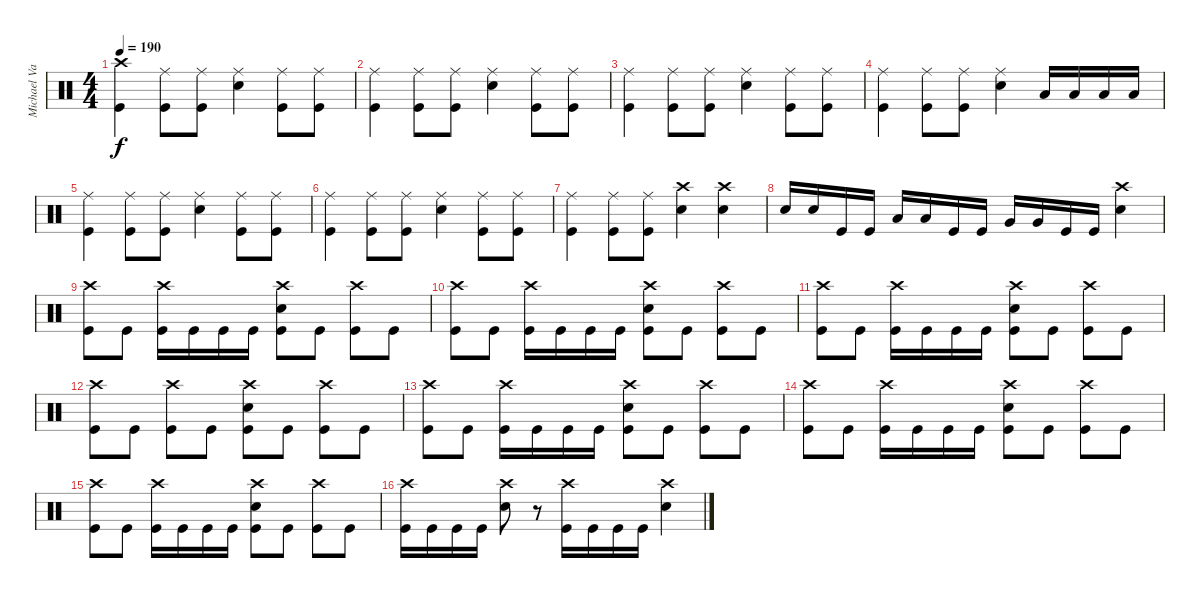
\track ("Michael VanDyne" "Michael Va") {instrument percussion}
\staff {score}
\articulation defaults
\ts (4 4)
\tempo 190
\clef neutral
\ks c
("Crash high (hit)" "Kick (hit)").4{dy f} ("Ride (middle)" "Kick (hit)").8 ("Ride (middle)" "Kick (hit)").8 ("Ride (middle)" "Electric Snare (hit)").4 ("Ride (middle)" "Kick (hit)").8 ("Ride (middle)" "Kick (hit)").8 |
("Ride (middle)" "Kick (hit)").4 ("Ride (middle)" "Kick (hit)").8 ("Ride (middle)" "Kick (hit)").8 ("Ride (middle)" "Electric Snare (hit)").4 ("Ride (middle)" "Kick (hit)").8 ("Ride (middle)" "Kick (hit)").8 |
("Ride (middle)" "Kick (hit)").4 ("Ride (middle)" "Kick (hit)").8 ("Ride (middle)" "Kick (hit)").8 ("Ride (middle)" "Electric Snare (hit)").4 ("Ride (middle)" "Kick (hit)").8 ("Ride (middle)" "Kick (hit)").8 |
("Ride (middle)" "Kick (hit)").4 ("Ride (middle)" "Kick (hit)").8 ("Ride (middle)" "Kick (hit)").8 ("Ride (middle)" "Electric Snare (hit)").4 "Low Tom (hit)".16 "Low Tom (hit)".16 "Low Tom (hit)".16 "Low Tom (hit)".16 |
("Ride (middle)" "Kick (hit)").4 ("Ride (middle)" "Kick (hit)").8 ("Ride (middle)" "Kick (hit)").8 ("Ride (middle)" "Electric Snare (hit)").4 ("Ride (middle)" "Kick (hit)").8 ("Ride (middle)" "Kick (hit)").8 |
("Ride (middle)" "Kick (hit)").4 ("Ride (middle)" "Kick (hit)").8 ("Ride (middle)" "Kick (hit)").8 ("Ride (middle)" "Electric Snare (hit)").4 ("Ride (middle)" "Kick (hit)").8 ("Ride (middle)" "Kick (hit)").8 |
("Ride (middle)" "Kick (hit)").4 ("Ride (middle)" "Kick (hit)").8 ("Ride (middle)" "Kick (hit)").8 ("Crash high (hit)" "Electric Snare (hit)").4 ("Crash high (hit)" "Electric Snare (hit)").4 |
"Electric Snare (hit)".16 "Electric Snare (hit)".16 "Kick (hit)".16 "Kick (hit)".16 "Low Tom (hit)".16 "Low Tom (hit)".16 "Kick (hit)".16 "Kick (hit)".16 "Very Low Tom (hit)".16 "Very Low Tom (hit)".16 "Kick (hit)".16 "Kick (hit)".16 ("Crash high (hit)" "Electric Snare (hit)").4 |
("Crash high (hit)" "Kick (hit)").8 "Kick (hit)".8 ("Crash high (hit)" "Kick (hit)").16 "Kick (hit)".16 "Kick (hit)".16 "Kick (hit)".16 ("Crash high (hit)" "Electric Snare (hit)" "Kick (hit)").8 "Kick (hit)".8 ("Crash high (hit)" "Kick (hit)").8 "Kick (hit)".8 |
("Crash high (hit)" "Kick (hit)").8 "Kick (hit)".8 ("Crash high (hit)" "Kick (hit)").16 "Kick (hit)".16 "Kick (hit)".16 "Kick (hit)".16 ("Crash high (hit)" "Electric Snare (hit)" "Kick (hit)").8 "Kick (hit)".8 ("Crash high (hit)" "Kick (hit)").8 "Kick (hit)".8 |
("Crash high (hit)" "Kick (hit)").8 "Kick (hit)".8 ("Crash high (hit)" "Kick (hit)").16 "Kick (hit)".16 "Kick (hit)".16 "Kick (hit)".16 ("Crash high (hit)" "Electric Snare (hit)" "Kick (hit)").8 "Kick (hit)".8 ("Crash high (hit)" "Kick (hit)").8 "Kick (hit)".8 |
("Crash high (hit)" "Kick (hit)").8 "Kick (hit)".8 ("Crash high (hit)" "Kick (hit)").8 "Kick (hit)".8 ("Crash high (hit)" "Electric Snare (hit)" "Kick (hit)").8 "Kick (hit)".8 ("Crash high (hit)" "Kick (hit)").8 "Kick (hit)".8 |
("Crash high (hit)" "Kick (hit)").8 "Kick (hit)".8 ("Crash high (hit)" "Kick (hit)").16 "Kick (hit)".16 "Kick (hit)".16 "Kick (hit)".16 ("Crash high (hit)" "Electric Snare (hit)" "Kick (hit)").8 "Kick (hit)".8 ("Crash high (hit)" "Kick (hit)").8 "Kick (hit)".8 |
("Crash high (hit)" "Kick (hit)").8 "Kick (hit)".8 ("Crash high (hit)" "Kick (hit)").16 "Kick (hit)".16 "Kick (hit)".16 "Kick (hit)".16 ("Crash high (hit)" "Electric Snare (hit)" "Kick (hit)").8 "Kick (hit)".8 ("Crash high (hit)" "Kick (hit)").8 "Kick (hit)".8 |
("Crash high (hit)" "Kick (hit)").8 "Kick (hit)".8 ("Crash high (hit)" "Kick (hit)").16 "Kick (hit)".16 "Kick (hit)".16 "Kick (hit)".16 ("Crash high (hit)" "Electric Snare (hit)" "Kick (hit)").8 "Kick (hit)".8 ("Crash high (hit)" "Kick (hit)").8 "Kick (hit)".8 |
("Crash high (hit)" "Kick (hit)").16 "Kick (hit)".16 "Kick (hit)".16 "Kick (hit)".16 ("Crash high (hit)" "Electric Snare (hit)").8 r.8 ("Crash high (hit)" "Kick (hit)").16 "Kick (hit)".16 "Kick (hit)".16 "Kick (hit)".16 ("Crash high (hit)" "Electric Snare (hit)").4
